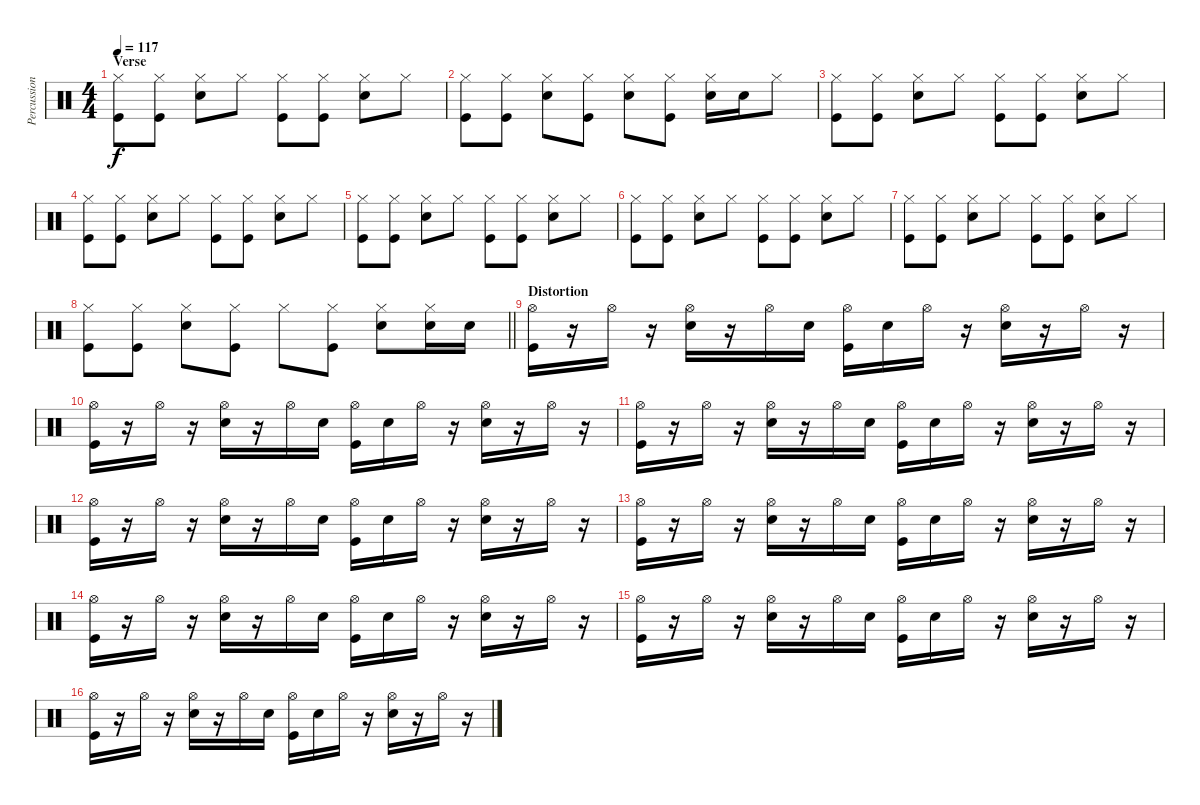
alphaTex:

\track ("Percussion" "Percussion") {instrument percussion}
\staff
\articulation defaults
\ts (4 4)
\section ("" "Verse")
\tempo 117
\clef neutral
\ks c
("Hi-Hat (closed)" "Kick (hit)").8{dy f} ("Hi-Hat (closed)" "Kick (hit)").8 ("Hi-Hat (closed)" "Snare (hit) 2").8 "Hi-Hat (closed)".8 ("Hi-Hat (closed)" "Kick (hit)").8 ("Hi-Hat (closed)" "Kick (hit)").8 ("Hi-Hat (closed)" "Snare (hit) 2").8 "Hi-Hat (closed)".8 |
("Hi-Hat (closed)" "Kick (hit)").8 ("Hi-Hat (closed)" "Kick (hit)").8 ("Hi-Hat (closed)" "Snare (hit) 2").8 ("Hi-Hat (closed)" "Kick (hit)").8 ("Hi-Hat (closed)" "Snare (hit) 2").8 ("Hi-Hat (closed)" "Kick (hit)").8 ("Hi-Hat (closed)" "Snare (hit) 2").16 "Snare (hit) 2".16 "Hi-Hat (closed)".8 |
("Hi-Hat (closed)" "Kick (hit)").8 ("Hi-Hat (closed)" "Kick (hit)").8 ("Hi-Hat (closed)" "Snare (hit) 2").8 "Hi-Hat (closed)".8 ("Hi-Hat (closed)" "Kick (hit)").8 ("Hi-Hat (closed)" "Kick (hit)").8 ("Hi-Hat (closed)" "Snare (hit) 2").8 "Hi-Hat (closed)".8 |
("Hi-Hat (closed)" "Kick (hit)").8 ("Hi-Hat (closed)" "Kick (hit)").8 ("Hi-Hat (closed)" "Snare (hit) 2").8 "Hi-Hat (closed)".8 ("Hi-Hat (closed)" "Kick (hit)").8 ("Hi-Hat (closed)" "Kick (hit)").8 ("Hi-Hat (closed)" "Snare (hit) 2").8 "Hi-Hat (closed)".8 |
("Hi-Hat (closed)" "Kick (hit)").8 ("Hi-Hat (closed)" "Kick (hit)").8 ("Hi-Hat (closed)" "Snare (hit) 2").8 "Hi-Hat (closed)".8 ("Hi-Hat (closed)" "Kick (hit)").8 ("Hi-Hat (closed)" "Kick (hit)").8 ("Hi-Hat (closed)" "Snare (hit) 2").8 "Hi-Hat (closed)".8 |
("Hi-Hat (closed)" "Kick (hit)").8 ("Hi-Hat (closed)" "Kick (hit)").8 ("Hi-Hat (closed)" "Snare (hit) 2").8 "Hi-Hat (closed)".8 ("Hi-Hat (closed)" "Kick (hit)").8 ("Hi-Hat (closed)" "Kick (hit)").8 ("Hi-Hat (closed)" "Snare (hit) 2").8 "Hi-Hat (closed)".8 |
("Hi-Hat (closed)" "Kick (hit)").8 ("Hi-Hat (closed)" "Kick (hit)").8 ("Hi-Hat (closed)" "Snare (hit) 2").8 "Hi-Hat (closed)".8 ("Hi-Hat (closed)" "Kick (hit)").8 ("Hi-Hat (closed)" "Kick (hit)").8 ("Hi-Hat (closed)" "Snare (hit) 2").8 "Hi-Hat (closed)".8 |
\barLineRight lightlight
("Hi-Hat (closed)" "Kick (hit)").8 ("Hi-Hat (closed)" "Kick (hit)").8 ("Hi-Hat (closed)" "Snare (hit) 2").8 ("Hi-Hat (closed)" "Kick (hit)").8 "Hi-Hat (closed)".8 ("Hi-Hat (closed)" "Kick (hit)").8 ("Hi-Hat (closed)" "Snare (hit) 2").8 ("Hi-Hat (closed)" "Snare (hit) 2").16 "Snare (hit) 2".16 |
\section ("" "Distortion")
("Hi-Hat (open)" "Kick (hit)").16 r.16 "Hi-Hat (open)".16 r.16 ("Hi-Hat (open)" "Snare (hit) 2").16 r.16 "Hi-Hat (open)".16 "Snare (hit) 2".16 ("Hi-Hat (open)" "Kick (hit)").16 "Snare (hit) 2".16 "Hi-Hat (open)".16 r.16 ("Hi-Hat (open)" "Snare (hit) 2").16 r.16 "Hi-Hat (open)".16 r.16 |
("Hi-Hat (open)" "Kick (hit)").16 r.16 "Hi-Hat (open)".16 r.16 ("Hi-Hat (open)" "Snare (hit) 2").16 r.16 "Hi-Hat (open)".16 "Snare (hit) 2".16 ("Hi-Hat (open)" "Kick (hit)").16 "Snare (hit) 2".16 "Hi-Hat (open)".16 r.16 ("Hi-Hat (open)" "Snare (hit) 2").16 r.16 "Hi-Hat (open)".16 r.16 |
("Hi-Hat (open)" "Kick (hit)").16 r.16 "Hi-Hat (open)".16 r.16 ("Hi-Hat (open)" "Snare (hit) 2").16 r.16 "Hi-Hat (open)".16 "Snare (hit) 2".16 ("Hi-Hat (open)" "Kick (hit)").16 "Snare (hit) 2".16 "Hi-Hat (open)".16 r.16 ("Hi-Hat (open)" "Snare (hit) 2").16 r.16 "Hi-Hat (open)".16 r.16 |
("Hi-Hat (open)" "Kick (hit)").16 r.16 "Hi-Hat (open)".16 r.16 ("Hi-Hat (open)" "Snare (hit) 2").16 r.16 "Hi-Hat (open)".16 "Snare (hit) 2".16 ("Hi-Hat (open)" "Kick (hit)").16 "Snare (hit) 2".16 "Hi-Hat (open)".16 r.16 ("Hi-Hat (open)" "Snare (hit) 2").16 r.16 "Hi-Hat (open)".16 r.16 |
("Hi-Hat (open)" "Kick (hit)").16 r.16 "Hi-Hat (open)".16 r.16 ("Hi-Hat (open)" "Snare (hit) 2").16 r.16 "Hi-Hat (open)".16 "Snare (hit) 2".16 ("Hi-Hat (open)" "Kick (hit)").16 "Snare (hit) 2".16 "Hi-Hat (open)".16 r.16 ("Hi-Hat (open)" "Snare (hit) 2").16 r.16 "Hi-Hat (open)".16 r.16 |
("Hi-Hat (open)" "Kick (hit)").16 r.16 "Hi-Hat (open)".16 r.16 ("Hi-Hat (open)" "Snare (hit) 2").16 r.16 "Hi-Hat (open)".16 "Snare (hit) 2".16 ("Hi-Hat (open)" "Kick (hit)").16 "Snare (hit) 2".16 "Hi-Hat (open)".16 r.16 ("Hi-Hat (open)" "Snare (hit) 2").16 r.16 "Hi-Hat (open)".16 r.16 |
("Hi-Hat (open)" "Kick (hit)").16 r.16 "Hi-Hat (open)".16 r.16 ("Hi-Hat (open)" "Snare (hit) 2").16 r.16 "Hi-Hat (open)".16 "Snare (hit) 2".16 ("Hi-Hat (open)" "Kick (hit)").16 "Snare (hit) 2".16 "Hi-Hat (open)".16 r.16 ("Hi-Hat (open)" "Snare (hit) 2").16 r.16 "Hi-Hat (open)".16 r.16 |
("Hi-Hat (open)" "Kick (hit)").16 r.16 "Hi-Hat (open)".16 r.16 ("Hi-Hat (open)" "Snare (hit) 2").16 r.16 "Hi-Hat (open)".16 "Snare (hit) 2".16 ("Hi-Hat (open)" "Kick (hit)").16 "Snare (hit) 2".16 "Hi-Hat (open)".16 r.16 ("Hi-Hat (open)" "Snare (hit) 2").16 r.16 "Hi-Hat (open)".16 r.16
